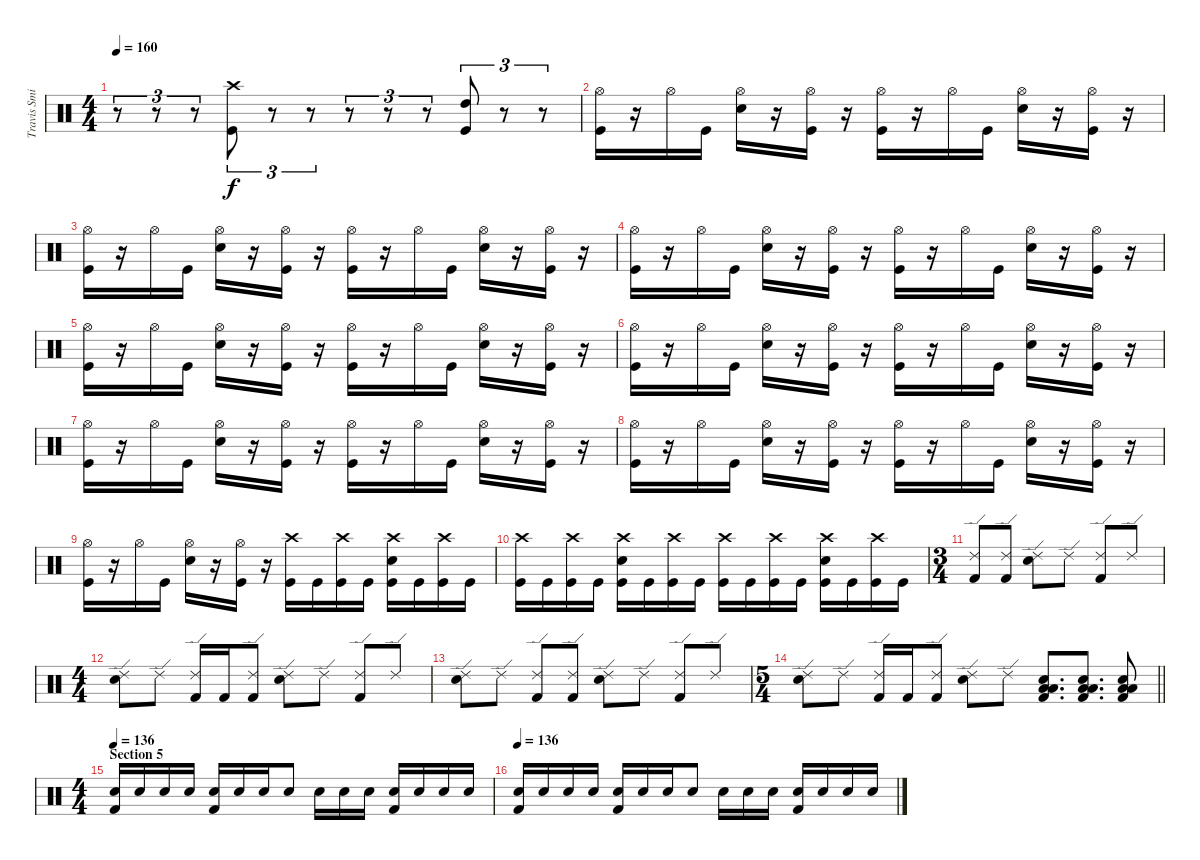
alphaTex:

\track ("Travis Smith" "Travis Smi") {instrument percussion}
\staff {score}
\articulation defaults
\ts (4 4)
\tempo 160
\clef neutral
\ks c
r.8{tu (3 2) dy f} r.8{tu (3 2)} r.8{tu (3 2)} ("Crash high (hit)" "Kick (hit)").8{tu (3 2)} r.8{tu (3 2)} r.8{tu (3 2)} r.8{tu (3 2)} r.8{tu (3 2)} r.8{tu (3 2)} ("High Tom (hit)" "Kick (hit)").8{tu (3 2)} r.8{tu (3 2)} r.8{tu (3 2)} |
("Hi-Hat (open)" "Kick (hit)").16 r.16 "Hi-Hat (open)".16 "Kick (hit)".16 ("Hi-Hat (open)" "Electric Snare (hit)").16 r.16 ("Hi-Hat (open)" "Kick (hit)").16 r.16 ("Hi-Hat (open)" "Kick (hit)").16 r.16 "Hi-Hat (open)".16 "Kick (hit)".16 ("Hi-Hat (open)" "Electric Snare (hit)").16 r.16 ("Hi-Hat (open)" "Kick (hit)").16 r.16 |
("Hi-Hat (open)" "Kick (hit)").16 r.16 "Hi-Hat (open)".16 "Kick (hit)".16 ("Hi-Hat (open)" "Electric Snare (hit)").16 r.16 ("Hi-Hat (open)" "Kick (hit)").16 r.16 ("Hi-Hat (open)" "Kick (hit)").16 r.16 "Hi-Hat (open)".16 "Kick (hit)".16 ("Hi-Hat (open)" "Electric Snare (hit)").16 r.16 ("Hi-Hat (open)" "Kick (hit)").16 r.16 |
("Hi-Hat (open)" "Kick (hit)").16 r.16 "Hi-Hat (open)".16 "Kick (hit)".16 ("Hi-Hat (open)" "Electric Snare (hit)").16 r.16 ("Hi-Hat (open)" "Kick (hit)").16 r.16 ("Hi-Hat (open)" "Kick (hit)").16 r.16 "Hi-Hat (open)".16 "Kick (hit)".16 ("Hi-Hat (open)" "Electric Snare (hit)").16 r.16 ("Hi-Hat (open)" "Kick (hit)").16 r.16 |
("Hi-Hat (open)" "Kick (hit)").16 r.16 "Hi-Hat (open)".16 "Kick (hit)".16 ("Hi-Hat (open)" "Electric Snare (hit)").16 r.16 ("Hi-Hat (open)" "Kick (hit)").16 r.16 ("Hi-Hat (open)" "Kick (hit)").16 r.16 "Hi-Hat (open)".16 "Kick (hit)".16 ("Hi-Hat (open)" "Electric Snare (hit)").16 r.16 ("Hi-Hat (open)" "Kick (hit)").16 r.16 |
("Hi-Hat (open)" "Kick (hit)").16 r.16 "Hi-Hat (open)".16 "Kick (hit)".16 ("Hi-Hat (open)" "Electric Snare (hit)").16 r.16 ("Hi-Hat (open)" "Kick (hit)").16 r.16 ("Hi-Hat (open)" "Kick (hit)").16 r.16 "Hi-Hat (open)".16 "Kick (hit)".16 ("Hi-Hat (open)" "Electric Snare (hit)").16 r.16 ("Hi-Hat (open)" "Kick (hit)").16 r.16 |
("Hi-Hat (open)" "Kick (hit)").16 r.16 "Hi-Hat (open)".16 "Kick (hit)".16 ("Hi-Hat (open)" "Electric Snare (hit)").16 r.16 ("Hi-Hat (open)" "Kick (hit)").16 r.16 ("Hi-Hat (open)" "Kick (hit)").16 r.16 "Hi-Hat (open)".16 "Kick (hit)".16 ("Hi-Hat (open)" "Electric Snare (hit)").16 r.16 ("Hi-Hat (open)" "Kick (hit)").16 r.16 |
("Hi-Hat (open)" "Kick (hit)").16 r.16 "Hi-Hat (open)".16 "Kick (hit)".16 ("Hi-Hat (open)" "Electric Snare (hit)").16 r.16 ("Hi-Hat (open)" "Kick (hit)").16 r.16 ("Hi-Hat (open)" "Kick (hit)").16 r.16 "Hi-Hat (open)".16 "Kick (hit)".16 ("Hi-Hat (open)" "Electric Snare (hit)").16 r.16 ("Hi-Hat (open)" "Kick (hit)").16 r.16 |
("Hi-Hat (open)" "Kick (hit)").16 r.16 "Hi-Hat (open)".16 "Kick (hit)".16 ("Hi-Hat (open)" "Electric Snare (hit)").16 r.16 ("Hi-Hat (open)" "Kick (hit)").16 r.16 ("Crash high (hit)" "Kick (hit)").16 "Kick (hit)".16 ("Crash high (hit)" "Kick (hit)").16 "Kick (hit)".16 ("Crash high (hit)" "Electric Snare (hit)" "Kick (hit)").16 "Kick (hit)".16 ("Crash high (hit)" "Kick (hit)").16 "Kick (hit)".16 |
("Crash high (hit)" "Kick (hit)").16 "Kick (hit)".16 ("Crash high (hit)" "Kick (hit)").16 "Kick (hit)".16 ("Crash high (hit)" "Electric Snare (hit)" "Kick (hit)").16 "Kick (hit)".16 ("Crash high (hit)" "Kick (hit)").16 "Kick (hit)".16 ("Crash high (hit)" "Kick (hit)").16 "Kick (hit)".16 ("Crash high (hit)" "Kick (hit)").16 "Kick (hit)".16 ("Crash high (hit)" "Electric Snare (hit)" "Kick (hit)").16 "Kick (hit)".16 ("Crash high (hit)" "Kick (hit)").16 "Kick (hit)".16 |
\ts (3 4)
("Ride (edge) 2" "Kick (hit) 2").8 ("Ride (edge) 2" "Kick (hit) 2").8 ("Ride (edge) 2" "Snare (hit) 2").8 "Ride (edge) 2".8 ("Ride (edge) 2" "Kick (hit) 2").8 "Ride (edge) 2".8 |
\ts (4 4)
("Ride (edge) 2" "Snare (hit) 2").8 "Ride (edge) 2".8 ("Ride (edge) 2" "Kick (hit) 2").16 "Kick (hit) 2".16 ("Ride (edge) 2" "Kick (hit) 2").8 ("Ride (edge) 2" "Snare (hit) 2").8 "Ride (edge) 2".8 ("Ride (edge) 2" "Kick (hit) 2").8 "Ride (edge) 2".8 |
("Ride (edge) 2" "Snare (hit) 2").8 "Ride (edge) 2".8 ("Ride (edge) 2" "Kick (hit) 2").8 ("Ride (edge) 2" "Kick (hit) 2").8 ("Ride (edge) 2" "Snare (hit) 2").8 "Ride (edge) 2".8 ("Ride (edge) 2" "Kick (hit) 2").8 "Ride (edge) 2".8 |
\ts (5 4)
\barLineRight lightlight
("Ride (edge) 2" "Snare (hit) 2").8 "Ride (edge) 2".8 ("Ride (edge) 2" "Kick (hit) 2").16 "Kick (hit) 2".16 ("Ride (edge) 2" "Kick (hit) 2").8 ("Ride (edge) 2" "Snare (hit) 2").8 "Ride (edge) 2".8 ("Snare (hit) 2" "Low Floor Tom (hit)" "Low Tom (hit)" "Kick (hit) 2").8{d} ("Snare (hit) 2" "Low Tom (hit)" "Low Floor Tom (hit)" "Kick (hit) 2").8{d} ("Snare (hit) 2" "Low Tom (hit)" "Low Floor Tom (hit)" "Kick (hit) 2").8 |
\ts (4 4)
\section ("" "Section 5")
\tempo 136
("Kick (hit) 2" "Snare (hit) 2").16 "Snare (hit) 2".16 "Snare (hit) 2".16 "Snare (hit) 2".16 ("Kick (hit) 2" "Snare (hit) 2").16 "Snare (hit) 2".16 "Snare (hit) 2".16 "Snare (hit) 2".8 "Snare (hit) 2".16 "Snare (hit) 2".16 "Snare (hit) 2".16 ("Kick (hit) 2" "Snare (hit) 2").16 "Snare (hit) 2".16 "Snare (hit) 2".16 "Snare (hit) 2".16 |
\tempo 136
("Kick (hit) 2" "Snare (hit) 2").16 "Snare (hit) 2".16 "Snare (hit) 2".16 "Snare (hit) 2".16 ("Kick (hit) 2" "Snare (hit) 2").16 "Snare (hit) 2".16 "Snare (hit) 2".16 "Snare (hit) 2".8 "Snare (hit) 2".16 "Snare (hit) 2".16 "Snare (hit) 2".16 ("Kick (hit) 2" "Snare (hit) 2").16 "Snare (hit) 2".16 "Snare (hit) 2".16 "Snare (hit) 2".16
